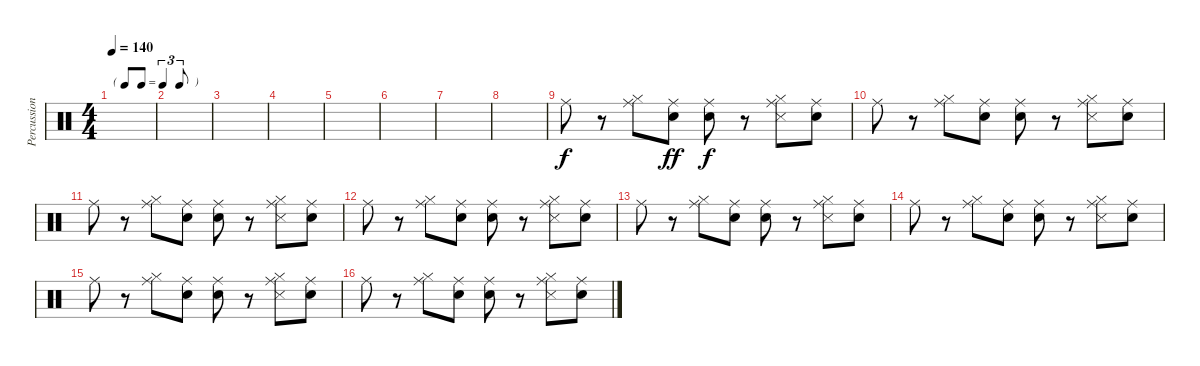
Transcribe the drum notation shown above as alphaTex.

\track ("Percussions" "Percussion") {instrument percussion}
\staff {score}
\articulation defaults
\ts (4 4)
\tf triplet8th
\tempo 140
\clef neutral
\ks c
|
|
|
|
|
|
|
|
"Ride (middle)".8 r.8 ("Hi-Hat (closed)" "Ride (middle)").8 ("Snare (hit)" "Ride (middle)").8{dy ff} ("Snare (hit)" "Ride (middle)").8{dy f} r.8 ("Hi-Hat (closed)" "Snare (side stick) 3" "Ride (middle)").8 ("Snare (hit)" "Ride (middle)").8 |
"Ride (middle)".8 r.8 ("Hi-Hat (closed)" "Ride (middle)").8 ("Snare (hit)" "Ride (middle)").8 ("Snare (hit)" "Ride (middle)").8 r.8 ("Hi-Hat (closed)" "Snare (side stick) 3" "Ride (middle)").8 ("Snare (hit)" "Ride (middle)").8 |
"Ride (middle)".8 r.8 ("Hi-Hat (closed)" "Ride (middle)").8 ("Snare (hit)" "Ride (middle)").8 ("Snare (hit)" "Ride (middle)").8 r.8 ("Hi-Hat (closed)" "Snare (side stick) 3" "Ride (middle)").8 ("Snare (hit)" "Ride (middle)").8 |
"Ride (middle)".8 r.8 ("Hi-Hat (closed)" "Ride (middle)").8 ("Snare (hit)" "Ride (middle)").8 ("Snare (hit)" "Ride (middle)").8 r.8 ("Hi-Hat (closed)" "Snare (side stick) 3" "Ride (middle)").8 ("Snare (hit)" "Ride (middle)").8 |
"Ride (middle)".8 r.8 ("Hi-Hat (closed)" "Ride (middle)").8 ("Snare (hit)" "Ride (middle)").8 ("Snare (hit)" "Ride (middle)").8 r.8 ("Hi-Hat (closed)" "Snare (side stick) 3" "Ride (middle)").8 ("Snare (hit)" "Ride (middle)").8 |
"Ride (middle)".8 r.8 ("Hi-Hat (closed)" "Ride (middle)").8 ("Snare (hit)" "Ride (middle)").8 ("Snare (hit)" "Ride (middle)").8 r.8 ("Hi-Hat (closed)" "Snare (side stick) 3" "Ride (middle)").8 ("Snare (hit)" "Ride (middle)").8 |
"Ride (middle)".8 r.8 ("Hi-Hat (closed)" "Ride (middle)").8 ("Snare (hit)" "Ride (middle)").8 ("Snare (hit)" "Ride (middle)").8 r.8 ("Hi-Hat (closed)" "Snare (side stick) 3" "Ride (middle)").8 ("Snare (hit)" "Ride (middle)").8 |
"Ride (middle)".8 r.8 ("Hi-Hat (closed)" "Ride (middle)").8 ("Snare (hit)" "Ride (middle)").8 ("Snare (hit)" "Ride (middle)").8 r.8 ("Hi-Hat (closed)" "Snare (side stick) 3" "Ride (middle)").8 ("Snare (hit)" "Ride (middle)").8
